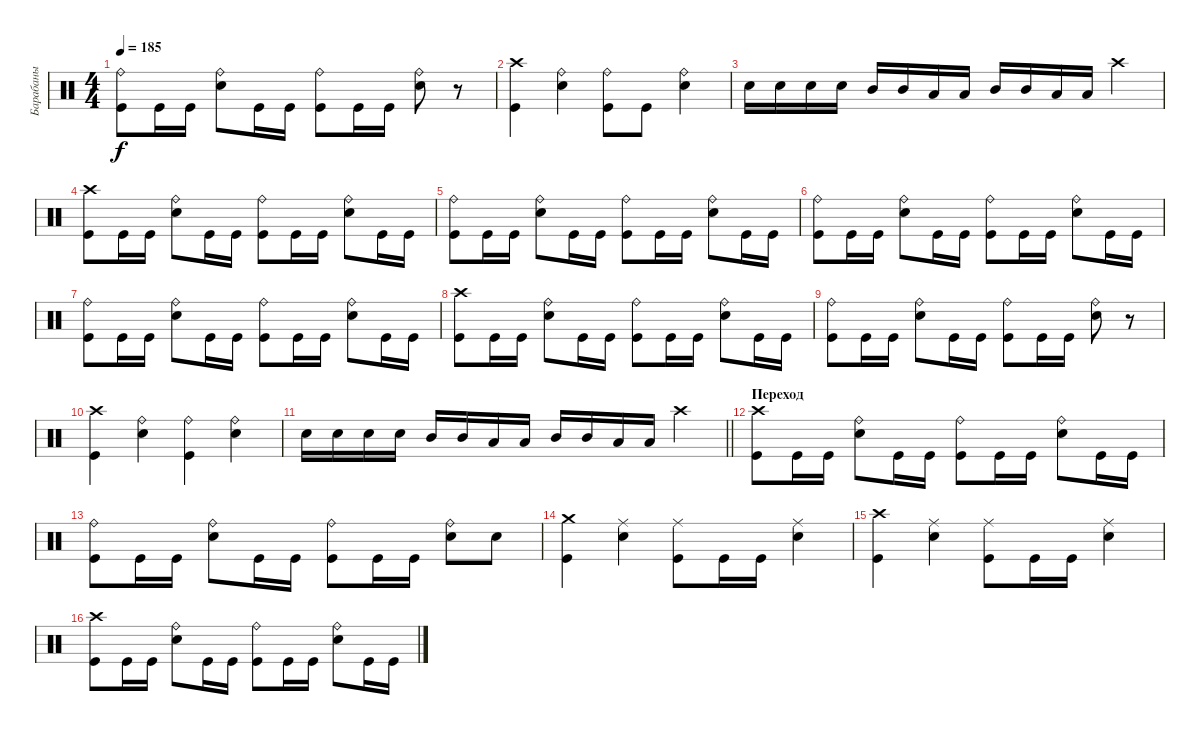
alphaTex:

\track ("Барабаны" "Барабаны") {instrument percussion}
\staff {score}
\articulation defaults
\ts (4 4)
\tempo 185
\clef neutral
\ks c
("Kick (hit)" "Ride (bell)").8{dy f} "Kick (hit)".16 "Kick (hit)".16 ("Snare (hit) 2" "Ride (bell)").8 "Kick (hit)".16 "Kick (hit)".16 ("Kick (hit)" "Ride (bell)").8 "Kick (hit)".16 "Kick (hit)".16 ("Snare (hit) 2" "Ride (bell)").8 r.8 |
("Kick (hit)" "Crash high (hit)").4 ("Snare (hit) 2" "Ride (bell)").4 ("Kick (hit)" "Ride (bell)").8 "Kick (hit)".8 ("Snare (hit) 2" "Ride (bell)").4 |
"Snare (hit) 2".16 "Snare (hit) 2".16 "Snare (hit) 2".16 "Snare (hit) 2".16 "Mid Tom (hit)".16 "Mid Tom (hit)".16 "Low Tom (hit)".16 "Low Tom (hit)".16 "Mid Tom (hit)".16 "Mid Tom (hit)".16 "Low Tom (hit)".16 "Low Tom (hit)".16 "Crash high (hit)".4 |
("Kick (hit)" "Crash high (hit)").8 "Kick (hit)".16 "Kick (hit)".16 ("Snare (hit) 2" "Ride (bell)").8 "Kick (hit)".16 "Kick (hit)".16 ("Kick (hit)" "Ride (bell)").8 "Kick (hit)".16 "Kick (hit)".16 ("Snare (hit) 2" "Ride (bell)").8 "Kick (hit)".16 "Kick (hit)".16 |
("Kick (hit)" "Ride (bell)").8 "Kick (hit)".16 "Kick (hit)".16 ("Snare (hit) 2" "Ride (bell)").8 "Kick (hit)".16 "Kick (hit)".16 ("Kick (hit)" "Ride (bell)").8 "Kick (hit)".16 "Kick (hit)".16 ("Snare (hit) 2" "Ride (bell)").8 "Kick (hit)".16 "Kick (hit)".16 |
("Kick (hit)" "Ride (bell)").8 "Kick (hit)".16 "Kick (hit)".16 ("Snare (hit) 2" "Ride (bell)").8 "Kick (hit)".16 "Kick (hit)".16 ("Kick (hit)" "Ride (bell)").8 "Kick (hit)".16 "Kick (hit)".16 ("Snare (hit) 2" "Ride (bell)").8 "Kick (hit)".16 "Kick (hit)".16 |
("Kick (hit)" "Ride (bell)").8 "Kick (hit)".16 "Kick (hit)".16 ("Snare (hit) 2" "Ride (bell)").8 "Kick (hit)".16 "Kick (hit)".16 ("Kick (hit)" "Ride (bell)").8 "Kick (hit)".16 "Kick (hit)".16 ("Snare (hit) 2" "Ride (bell)").8 "Kick (hit)".16 "Kick (hit)".16 |
("Kick (hit)" "Crash high (hit)").8 "Kick (hit)".16 "Kick (hit)".16 ("Snare (hit) 2" "Ride (bell)").8 "Kick (hit)".16 "Kick (hit)".16 ("Kick (hit)" "Ride (bell)").8 "Kick (hit)".16 "Kick (hit)".16 ("Snare (hit) 2" "Ride (bell)").8 "Kick (hit)".16 "Kick (hit)".16 |
("Kick (hit)" "Ride (bell)").8 "Kick (hit)".16 "Kick (hit)".16 ("Snare (hit) 2" "Ride (bell)").8 "Kick (hit)".16 "Kick (hit)".16 ("Kick (hit)" "Ride (bell)").8 "Kick (hit)".16 "Kick (hit)".16 ("Snare (hit) 2" "Ride (bell)").8 r.8 |
("Kick (hit)" "Crash high (hit)").4 ("Snare (hit) 2" "Ride (bell)").4 ("Kick (hit)" "Ride (bell)").4 ("Snare (hit) 2" "Ride (bell)").4 |
\barLineRight lightlight "Snare (hit) 2".16 "Snare (hit) 2".16 "Snare (hit) 2".16 "Snare (hit) 2".16 "Mid Tom (hit)".16 "Mid Tom (hit)".16 "Low Tom (hit)".16 "Low Tom (hit)".16 "Mid Tom (hit)".16 "Mid Tom (hit)".16 "Low Tom (hit)".16 "Low Tom (hit)".16 "Crash high (hit)".4
|
\section ("" "Переход")
("Kick (hit)" "Crash high (hit)").8 "Kick (hit)".16 "Kick (hit)".16 ("Snare (hit) 2" "Ride (bell)").8 "Kick (hit)".16 "Kick (hit)".16 ("Kick (hit)" "Ride (bell)").8 "Kick (hit)".16 "Kick (hit)".16 ("Snare (hit) 2" "Ride (bell)").8 "Kick (hit)".16 "Kick (hit)".16 |
("Kick (hit)" "Ride (bell)").8 "Kick (hit)".16 "Kick (hit)".16 ("Snare (hit) 2" "Ride (bell)").8 "Kick (hit)".16 "Kick (hit)".16 ("Kick (hit)" "Ride (bell)").8 "Kick (hit)".16 "Kick (hit)".16 ("Snare (hit) 2" "Ride (bell)").8 "Snare (hit) 2".8 |
("Kick (hit)" "Crash medium (hit)").4 ("Snare (hit) 2" "Ride (middle)").4 ("Kick (hit)" "Ride (middle)").8 "Kick (hit)".16 "Kick (hit)".16 ("Snare (hit) 2" "Ride (middle)").4 |
("Kick (hit)" "Crash high (hit)").4 ("Snare (hit) 2" "Ride (middle)").4 ("Kick (hit)" "Ride (middle)").8 "Kick (hit)".16 "Kick (hit)".16 ("Snare (hit) 2" "Ride (middle)").4 |
("Kick (hit)" "Crash high (hit)").8 "Kick (hit)".16 "Kick (hit)".16 ("Snare (hit) 2" "Ride (bell)").8 "Kick (hit)".16 "Kick (hit)".16 ("Kick (hit)" "Ride (bell)").8 "Kick (hit)".16 "Kick (hit)".16 ("Snare (hit) 2" "Ride (bell)").8 "Kick (hit)".16 "Kick (hit)".16
